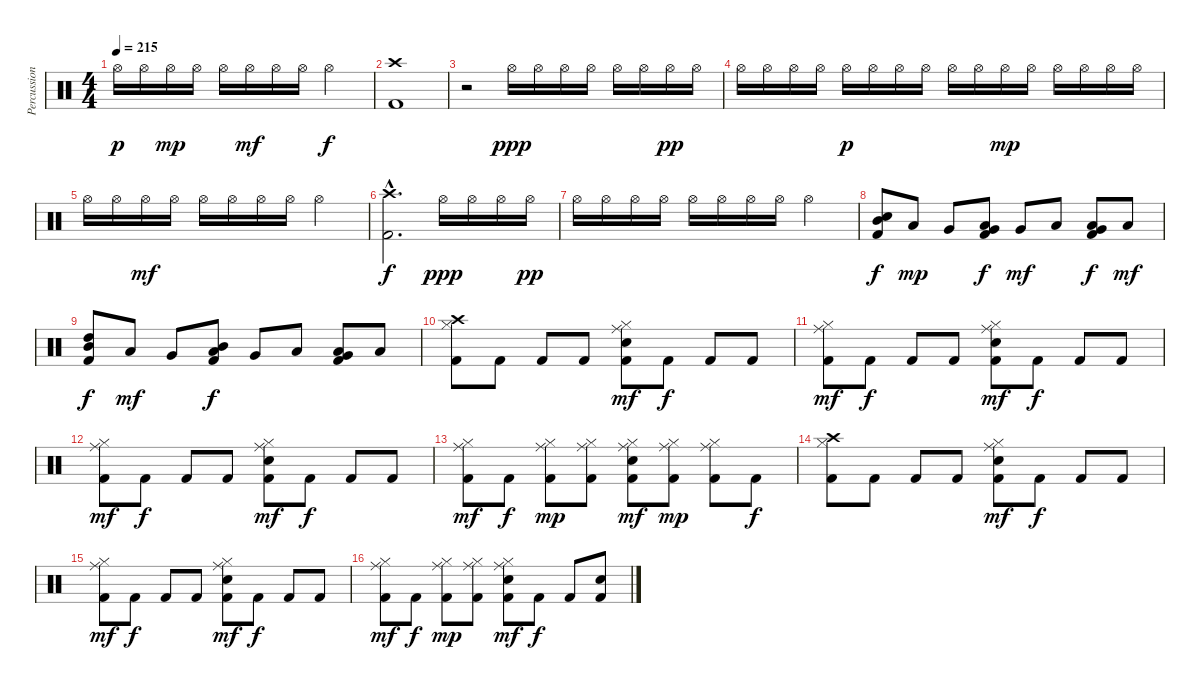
\track ("Percussion" "Percussion") {instrument percussion}
\staff {score}
\articulation defaults
\ts (4 4)
\tempo 215
\clef neutral
\ks c "Hi-Hat (open)".16{dy p} "Hi-Hat (open)".16 "Hi-Hat (open)".16{dy mp} "Hi-Hat (open)".16 "Hi-Hat (open)".16 "Hi-Hat (open)".16{dy mf} "Hi-Hat (open)".16 "Hi-Hat (open)".16 "Hi-Hat (open)".2{dy f}
|
("Crash high (hit)" "Kick (hit) 2").1 |
r.2 "Hi-Hat (open)".16{dy ppp} "Hi-Hat (open)".16 "Hi-Hat (open)".16 "Hi-Hat (open)".16 "Hi-Hat (open)".16 "Hi-Hat (open)".16 "Hi-Hat (open)".16{dy pp} "Hi-Hat (open)".16 |
"Hi-Hat (open)".16 "Hi-Hat (open)".16 "Hi-Hat (open)".16 "Hi-Hat (open)".16 "Hi-Hat (open)".16{dy p} "Hi-Hat (open)".16 "Hi-Hat (open)".16 "Hi-Hat (open)".16 "Hi-Hat (open)".16 "Hi-Hat (open)".16 "Hi-Hat (open)".16{dy mp} "Hi-Hat (open)".16 "Hi-Hat (open)".16 "Hi-Hat (open)".16 "Hi-Hat (open)".16 "Hi-Hat (open)".16 |
"Hi-Hat (open)".16 "Hi-Hat (open)".16 "Hi-Hat (open)".16{dy mf} "Hi-Hat (open)".16 "Hi-Hat (open)".16 "Hi-Hat (open)".16 "Hi-Hat (open)".16 "Hi-Hat (open)".16 "Hi-Hat (open)".2 |
("Crash high (hit)"{hac} "Kick (hit) 2"{hac}).2{d dy f} "Hi-Hat (open)".16{dy ppp} "Hi-Hat (open)".16 "Hi-Hat (open)".16 "Hi-Hat (open)".16{dy pp} |
"Hi-Hat (open)".16 "Hi-Hat (open)".16 "Hi-Hat (open)".16 "Hi-Hat (open)".16 "Hi-Hat (open)".16 "Hi-Hat (open)".16 "Hi-Hat (open)".16 "Hi-Hat (open)".16 "Hi-Hat (open)".2 |
("Mid Tom (hit)" "Snare (hit) 2" "Kick (hit) 2").8{dy f} "Low Tom (hit)".8{dy mp} "Very Low Tom (hit)".8 ("Low Tom (hit)" "Very Low Tom (hit)" "Kick (hit) 2").8{dy f} "Very Low Tom (hit)".8{dy mf} "Low Tom (hit)".8 ("Very Low Tom (hit)" "Low Floor Tom (hit)" "Kick (hit) 2").8{dy f} "Low Floor Tom (hit)".8{dy mf} |
("Mid Tom (hit)" "High Tom (hit)" "Kick (hit) 2").8{dy f} "Low Tom (hit)".8{dy mf} "Very Low Tom (hit)".8 ("Low Tom (hit)" "Mid Tom (hit)" "Kick (hit) 2").8{dy f} "Very Low Tom (hit)".8 "Low Tom (hit)".8 ("Very Low Tom (hit)" "Low Tom (hit)" "Kick (hit) 2").8 "Low Floor Tom (hit)".8 |
\section ("" "")
("Crash high (hit)" "Hi-Hat (closed)" "Kick (hit) 2").8 "Kick (hit) 2".8 "Kick (hit) 2".8 "Kick (hit) 2".8 ("Hi-Hat (closed)" "Ride (middle)" "Snare (hit) 2" "Kick (hit) 2").8{dy mf} "Kick (hit) 2".8{dy f} "Kick (hit) 2".8 "Kick (hit) 2".8 |
("Hi-Hat (closed)" "Ride (middle)" "Kick (hit) 2").8{dy mf} "Kick (hit) 2".8{dy f} "Kick (hit) 2".8 "Kick (hit) 2".8 ("Hi-Hat (closed)" "Ride (middle)" "Snare (hit) 2" "Kick (hit) 2").8{dy mf} "Kick (hit) 2".8{dy f} "Kick (hit) 2".8 "Kick (hit) 2".8 |
("Hi-Hat (closed)" "Ride (middle)" "Kick (hit) 2").8{dy mf} "Kick (hit) 2".8{dy f} "Kick (hit) 2".8 "Kick (hit) 2".8 ("Hi-Hat (closed)" "Ride (middle)" "Snare (hit) 2" "Kick (hit) 2").8{dy mf} "Kick (hit) 2".8{dy f} "Kick (hit) 2".8 "Kick (hit) 2".8 |
("Hi-Hat (closed)" "Ride (middle)" "Kick (hit) 2").8{dy mf} "Kick (hit) 2".8{dy f} ("Hi-Hat (closed)" "Ride (middle)" "Kick (hit) 2").8{dy mp} ("Hi-Hat (closed)" "Ride (middle)" "Kick (hit) 2").8 ("Hi-Hat (closed)" "Ride (middle)" "Snare (hit) 2" "Kick (hit) 2").8{dy mf} ("Hi-Hat (closed)" "Ride (middle)" "Kick (hit) 2").8{dy mp} ("Hi-Hat (closed)" "Ride (middle)" "Kick (hit) 2").8 "Kick (hit) 2".8{dy f} |
("Crash high (hit)" "Hi-Hat (closed)" "Kick (hit) 2").8 "Kick (hit) 2".8 "Kick (hit) 2".8 "Kick (hit) 2".8 ("Hi-Hat (closed)" "Ride (middle)" "Snare (hit) 2" "Kick (hit) 2").8{dy mf} "Kick (hit) 2".8{dy f} "Kick (hit) 2".8 "Kick (hit) 2".8 |
("Hi-Hat (closed)" "Ride (middle)" "Kick (hit) 2").8{dy mf} "Kick (hit) 2".8{dy f} "Kick (hit) 2".8 "Kick (hit) 2".8 ("Hi-Hat (closed)" "Ride (middle)" "Snare (hit) 2" "Kick (hit) 2").8{dy mf} "Kick (hit) 2".8{dy f} "Kick (hit) 2".8 "Kick (hit) 2".8 |
("Hi-Hat (closed)" "Ride (middle)" "Kick (hit) 2").8{dy mf} "Kick (hit) 2".8{dy f} ("Hi-Hat (closed)" "Ride (middle)" "Kick (hit) 2").8{dy mp} ("Hi-Hat (closed)" "Ride (middle)" "Kick (hit) 2").8 ("Hi-Hat (closed)" "Ride (middle)" "Snare (hit) 2" "Kick (hit) 2").8{dy mf} "Kick (hit) 2".8{dy f} "Kick (hit) 2".8 ("Snare (hit) 2" "Kick (hit) 2").8
